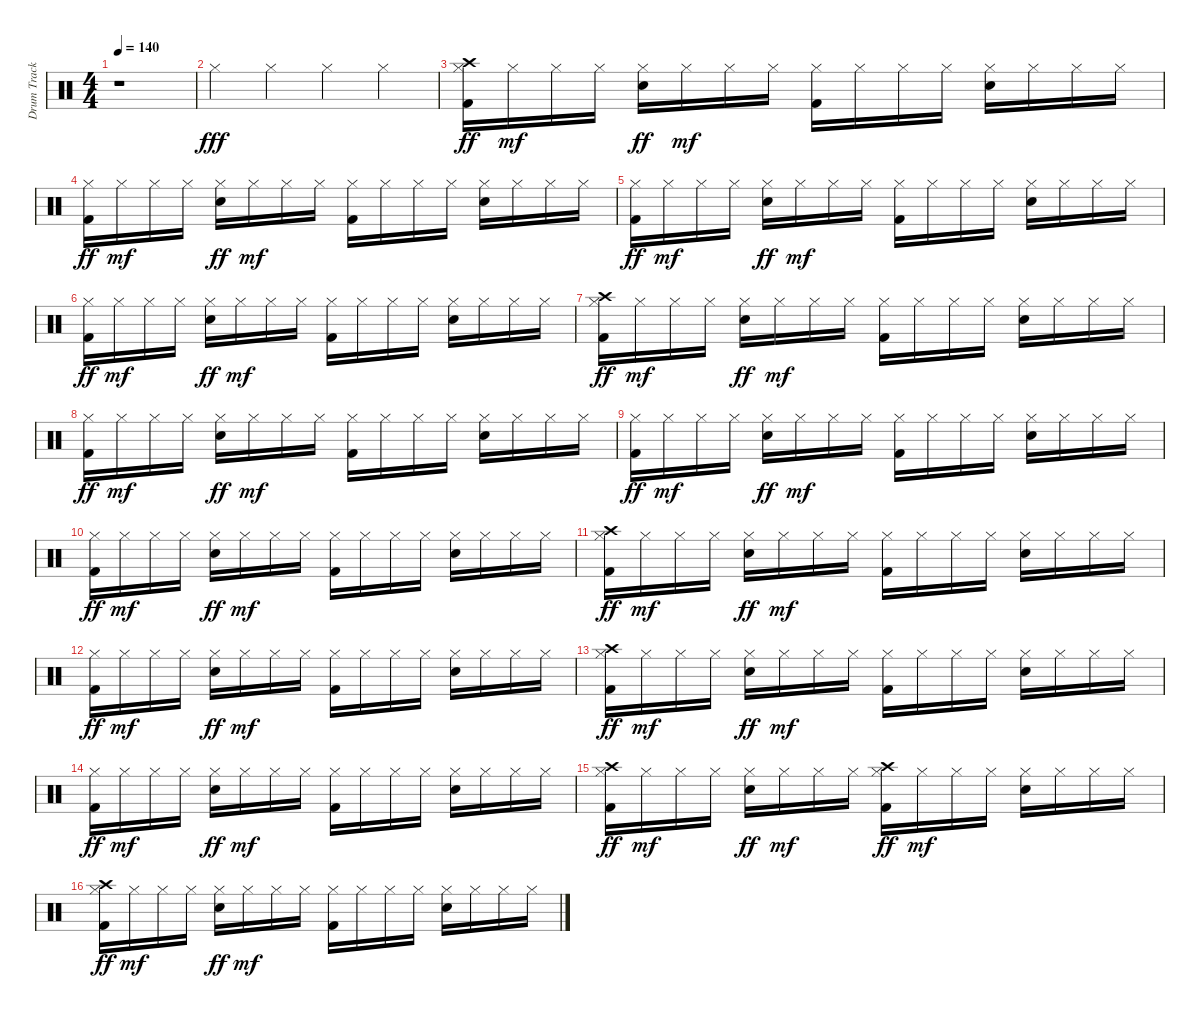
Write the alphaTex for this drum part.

\track ("Drum Track" "Drum Track") {instrument percussion}
\staff {score}
\articulation defaults
\ts (4 4)
\tempo 140
\clef neutral
\ks c
r.1{dy fff} |
"Hi-Hat (closed)".4 "Hi-Hat (closed)".4 "Hi-Hat (closed)".4 "Hi-Hat (closed)".4 |
("Kick (hit) 2" "Hi-Hat (closed)" "Crash high (hit)").16{dy ff} "Hi-Hat (closed)".16{dy mf} "Hi-Hat (closed)".16 "Hi-Hat (closed)".16 ("Electric Snare (hit)" "Hi-Hat (closed)").16{dy ff} "Hi-Hat (closed)".16{dy mf} "Hi-Hat (closed)".16 "Hi-Hat (closed)".16 ("Kick (hit) 2" "Hi-Hat (closed)").16 "Hi-Hat (closed)".16 "Hi-Hat (closed)".16 "Hi-Hat (closed)".16 ("Electric Snare (hit)" "Hi-Hat (closed)").16 "Hi-Hat (closed)".16 "Hi-Hat (closed)".16 "Hi-Hat (closed)".16 |
("Kick (hit) 2" "Hi-Hat (closed)").16{dy ff} "Hi-Hat (closed)".16{dy mf} "Hi-Hat (closed)".16 "Hi-Hat (closed)".16 ("Electric Snare (hit)" "Hi-Hat (closed)").16{dy ff} "Hi-Hat (closed)".16{dy mf} "Hi-Hat (closed)".16 "Hi-Hat (closed)".16 ("Kick (hit) 2" "Hi-Hat (closed)").16 "Hi-Hat (closed)".16 "Hi-Hat (closed)".16 "Hi-Hat (closed)".16 ("Electric Snare (hit)" "Hi-Hat (closed)").16 "Hi-Hat (closed)".16 "Hi-Hat (closed)".16 "Hi-Hat (closed)".16 |
("Kick (hit) 2" "Hi-Hat (closed)").16{dy ff} "Hi-Hat (closed)".16{dy mf} "Hi-Hat (closed)".16 "Hi-Hat (closed)".16 ("Electric Snare (hit)" "Hi-Hat (closed)").16{dy ff} "Hi-Hat (closed)".16{dy mf} "Hi-Hat (closed)".16 "Hi-Hat (closed)".16 ("Kick (hit) 2" "Hi-Hat (closed)").16 "Hi-Hat (closed)".16 "Hi-Hat (closed)".16 "Hi-Hat (closed)".16 ("Electric Snare (hit)" "Hi-Hat (closed)").16 "Hi-Hat (closed)".16 "Hi-Hat (closed)".16 "Hi-Hat (closed)".16 |
("Kick (hit) 2" "Hi-Hat (closed)").16{dy ff} "Hi-Hat (closed)".16{dy mf} "Hi-Hat (closed)".16 "Hi-Hat (closed)".16 ("Electric Snare (hit)" "Hi-Hat (closed)").16{dy ff} "Hi-Hat (closed)".16{dy mf} "Hi-Hat (closed)".16 "Hi-Hat (closed)".16 ("Kick (hit) 2" "Hi-Hat (closed)").16 "Hi-Hat (closed)".16 "Hi-Hat (closed)".16 "Hi-Hat (closed)".16 ("Electric Snare (hit)" "Hi-Hat (closed)").16 "Hi-Hat (closed)".16 "Hi-Hat (closed)".16 "Hi-Hat (closed)".16 |
("Kick (hit) 2" "Hi-Hat (closed)" "Crash high (hit)").16{dy ff} "Hi-Hat (closed)".16{dy mf} "Hi-Hat (closed)".16 "Hi-Hat (closed)".16 ("Electric Snare (hit)" "Hi-Hat (closed)").16{dy ff} "Hi-Hat (closed)".16{dy mf} "Hi-Hat (closed)".16 "Hi-Hat (closed)".16 ("Kick (hit) 2" "Hi-Hat (closed)").16 "Hi-Hat (closed)".16 "Hi-Hat (closed)".16 "Hi-Hat (closed)".16 ("Electric Snare (hit)" "Hi-Hat (closed)").16 "Hi-Hat (closed)".16 "Hi-Hat (closed)".16 "Hi-Hat (closed)".16 |
("Kick (hit) 2" "Hi-Hat (closed)").16{dy ff} "Hi-Hat (closed)".16{dy mf} "Hi-Hat (closed)".16 "Hi-Hat (closed)".16 ("Electric Snare (hit)" "Hi-Hat (closed)").16{dy ff} "Hi-Hat (closed)".16{dy mf} "Hi-Hat (closed)".16 "Hi-Hat (closed)".16 ("Kick (hit) 2" "Hi-Hat (closed)").16 "Hi-Hat (closed)".16 "Hi-Hat (closed)".16 "Hi-Hat (closed)".16 ("Electric Snare (hit)" "Hi-Hat (closed)").16 "Hi-Hat (closed)".16 "Hi-Hat (closed)".16 "Hi-Hat (closed)".16 |
("Kick (hit) 2" "Hi-Hat (closed)").16{dy ff} "Hi-Hat (closed)".16{dy mf} "Hi-Hat (closed)".16 "Hi-Hat (closed)".16 ("Electric Snare (hit)" "Hi-Hat (closed)").16{dy ff} "Hi-Hat (closed)".16{dy mf} "Hi-Hat (closed)".16 "Hi-Hat (closed)".16 ("Kick (hit) 2" "Hi-Hat (closed)").16 "Hi-Hat (closed)".16 "Hi-Hat (closed)".16 "Hi-Hat (closed)".16 ("Electric Snare (hit)" "Hi-Hat (closed)").16 "Hi-Hat (closed)".16 "Hi-Hat (closed)".16 "Hi-Hat (closed)".16 |
("Kick (hit) 2" "Hi-Hat (closed)").16{dy ff} "Hi-Hat (closed)".16{dy mf} "Hi-Hat (closed)".16 "Hi-Hat (closed)".16 ("Electric Snare (hit)" "Hi-Hat (closed)").16{dy ff} "Hi-Hat (closed)".16{dy mf} "Hi-Hat (closed)".16 "Hi-Hat (closed)".16 ("Kick (hit) 2" "Hi-Hat (closed)").16 "Hi-Hat (closed)".16 "Hi-Hat (closed)".16 "Hi-Hat (closed)".16 ("Electric Snare (hit)" "Hi-Hat (closed)").16 "Hi-Hat (closed)".16 "Hi-Hat (closed)".16 "Hi-Hat (closed)".16 |
("Kick (hit) 2" "Hi-Hat (closed)" "Crash high (hit)").16{dy ff} "Hi-Hat (closed)".16{dy mf} "Hi-Hat (closed)".16 "Hi-Hat (closed)".16 ("Electric Snare (hit)" "Hi-Hat (closed)").16{dy ff} "Hi-Hat (closed)".16{dy mf} "Hi-Hat (closed)".16 "Hi-Hat (closed)".16 ("Kick (hit) 2" "Hi-Hat (closed)").16 "Hi-Hat (closed)".16 "Hi-Hat (closed)".16 "Hi-Hat (closed)".16 ("Electric Snare (hit)" "Hi-Hat (closed)").16 "Hi-Hat (closed)".16 "Hi-Hat (closed)".16 "Hi-Hat (closed)".16 |
("Kick (hit) 2" "Hi-Hat (closed)").16{dy ff} "Hi-Hat (closed)".16{dy mf} "Hi-Hat (closed)".16 "Hi-Hat (closed)".16 ("Electric Snare (hit)" "Hi-Hat (closed)").16{dy ff} "Hi-Hat (closed)".16{dy mf} "Hi-Hat (closed)".16 "Hi-Hat (closed)".16 ("Kick (hit) 2" "Hi-Hat (closed)").16 "Hi-Hat (closed)".16 "Hi-Hat (closed)".16 "Hi-Hat (closed)".16 ("Electric Snare (hit)" "Hi-Hat (closed)").16 "Hi-Hat (closed)".16 "Hi-Hat (closed)".16 "Hi-Hat (closed)".16 |
("Kick (hit) 2" "Hi-Hat (closed)" "Crash high (hit)").16{dy ff} "Hi-Hat (closed)".16{dy mf} "Hi-Hat (closed)".16 "Hi-Hat (closed)".16 ("Electric Snare (hit)" "Hi-Hat (closed)").16{dy ff} "Hi-Hat (closed)".16{dy mf} "Hi-Hat (closed)".16 "Hi-Hat (closed)".16 ("Kick (hit) 2" "Hi-Hat (closed)").16 "Hi-Hat (closed)".16 "Hi-Hat (closed)".16 "Hi-Hat (closed)".16 ("Electric Snare (hit)" "Hi-Hat (closed)").16 "Hi-Hat (closed)".16 "Hi-Hat (closed)".16 "Hi-Hat (closed)".16 |
("Kick (hit) 2" "Hi-Hat (closed)").16{dy ff} "Hi-Hat (closed)".16{dy mf} "Hi-Hat (closed)".16 "Hi-Hat (closed)".16 ("Electric Snare (hit)" "Hi-Hat (closed)").16{dy ff} "Hi-Hat (closed)".16{dy mf} "Hi-Hat (closed)".16 "Hi-Hat (closed)".16 ("Kick (hit) 2" "Hi-Hat (closed)").16 "Hi-Hat (closed)".16 "Hi-Hat (closed)".16 "Hi-Hat (closed)".16 ("Electric Snare (hit)" "Hi-Hat (closed)").16 "Hi-Hat (closed)".16 "Hi-Hat (closed)".16 "Hi-Hat (closed)".16 |
("Kick (hit) 2" "Hi-Hat (closed)" "Crash high (hit)").16{dy ff} "Hi-Hat (closed)".16{dy mf} "Hi-Hat (closed)".16 "Hi-Hat (closed)".16 ("Electric Snare (hit)" "Hi-Hat (closed)").16{dy ff} "Hi-Hat (closed)".16{dy mf} "Hi-Hat (closed)".16 "Hi-Hat (closed)".16 ("Kick (hit) 2" "Hi-Hat (closed)" "Crash high (hit)").16{dy ff} "Hi-Hat (closed)".16{dy mf} "Hi-Hat (closed)".16 "Hi-Hat (closed)".16 ("Electric Snare (hit)" "Hi-Hat (closed)").16 "Hi-Hat (closed)".16 "Hi-Hat (closed)".16 "Hi-Hat (closed)".16 |
("Kick (hit) 2" "Hi-Hat (closed)" "Crash high (hit)").16{dy ff} "Hi-Hat (closed)".16{dy mf} "Hi-Hat (closed)".16 "Hi-Hat (closed)".16 ("Electric Snare (hit)" "Hi-Hat (closed)").16{dy ff} "Hi-Hat (closed)".16{dy mf} "Hi-Hat (closed)".16 "Hi-Hat (closed)".16 ("Kick (hit) 2" "Hi-Hat (closed)").16 "Hi-Hat (closed)".16 "Hi-Hat (closed)".16 "Hi-Hat (closed)".16 ("Electric Snare (hit)" "Hi-Hat (closed)").16 "Hi-Hat (closed)".16 "Hi-Hat (closed)".16 "Hi-Hat (closed)".16
